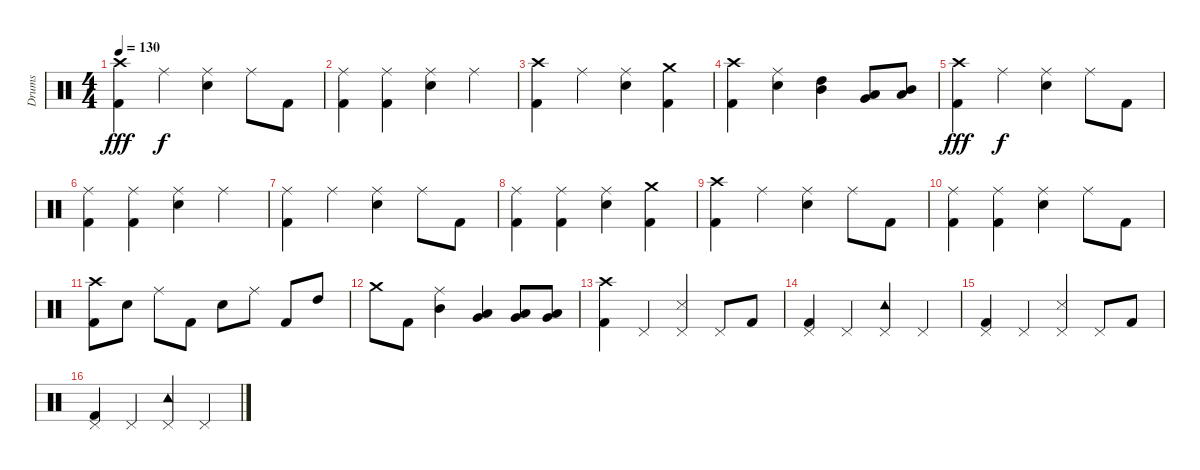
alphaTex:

\track ("Drums" "Drums") {instrument percussion}
\staff {score}
\articulation defaults
\ts (4 4)
\tempo 130
\clef neutral
\ks c
("Crash high (hit)" "Kick (hit) 2").4{dy fff} "Ride (middle)".4{dy f} ("Ride (middle)" "Electric Snare (hit)").4 "Ride (middle)".8 "Kick (hit) 2".8 |
("Ride (middle)" "Kick (hit) 2").4 ("Ride (middle)" "Kick (hit) 2").4 ("Ride (middle)" "Electric Snare (hit)").4 "Ride (middle)".4 |
("Crash high (hit)" "Kick (hit) 2").4 "Ride (middle)".4 ("Ride (middle)" "Electric Snare (hit)").4 ("Crash medium (hit)" "Kick (hit) 2").4 |
("Crash high (hit)" "Kick (hit) 2").4 ("Ride (middle)" "Electric Snare (hit)").4 ("High Tom (hit)" "Mid Tom (hit)").4 ("Low Tom (hit)" "Very Low Tom (hit)").8 ("Mid Tom (hit)" "Low Tom (hit)").8 |
("Crash high (hit)" "Kick (hit) 2").4{dy fff} "Ride (middle)".4{dy f} ("Ride (middle)" "Electric Snare (hit)").4 "Ride (middle)".8 "Kick (hit) 2".8 |
("Ride (middle)" "Kick (hit) 2").4 ("Ride (middle)" "Kick (hit) 2").4 ("Ride (middle)" "Electric Snare (hit)").4 "Ride (middle)".4 |
("Ride (middle)" "Kick (hit) 2").4 "Ride (middle)".4 ("Ride (middle)" "Electric Snare (hit)").4 "Ride (middle)".8 "Kick (hit) 2".8 |
("Ride (middle)" "Kick (hit) 2").4 ("Ride (middle)" "Kick (hit) 2").4 ("Ride (middle)" "Electric Snare (hit)").4 ("Crash medium (hit)" "Kick (hit) 2").4 |
("Crash high (hit)" "Kick (hit) 2").4 "Ride (middle)".4 ("Ride (middle)" "Electric Snare (hit)").4 "Ride (middle)".8 "Kick (hit) 2".8 |
("Ride (middle)" "Kick (hit) 2").4 ("Ride (middle)" "Kick (hit) 2").4 ("Ride (middle)" "Electric Snare (hit)").4 "Ride (middle)".8 "Kick (hit) 2".8 |
("Crash high (hit)" "Kick (hit) 2").8 "Electric Snare (hit)".8 "Ride (middle)".8 "Kick (hit) 2".8 "Electric Snare (hit)".8 "Ride (middle)".8 "Kick (hit) 2".8 "High Tom (hit)".8 |
"Crash medium (hit)".8 "Kick (hit) 2".8 ("Ride (middle)" "Mid Tom (hit)").4 ("Low Tom (hit)" "Very Low Tom (hit)").4 ("Very Low Tom (hit)" "Low Floor Tom (hit)").8 ("Very Low Tom (hit)" "Low Floor Tom (hit)").8 |
("Crash high (hit)" "Kick (hit) 2").4 "Pedal Hi-Hat (hit)".4 ("Pedal Hi-Hat (hit)" "Snare (side stick) 3").4 "Pedal Hi-Hat (hit)".8 "Kick (hit) 2".8 |
("Pedal Hi-Hat (hit)" "Kick (hit) 2").4 "Pedal Hi-Hat (hit)".4 ("Tambourine (hit)" "Pedal Hi-Hat (hit)").4 "Pedal Hi-Hat (hit)".4 |
("Pedal Hi-Hat (hit)" "Kick (hit) 2").4 "Pedal Hi-Hat (hit)".4 ("Pedal Hi-Hat (hit)" "Snare (side stick) 3").4 "Pedal Hi-Hat (hit)".8 "Kick (hit) 2".8 |
("Pedal Hi-Hat (hit)" "Kick (hit) 2").4 "Pedal Hi-Hat (hit)".4 ("Tambourine (hit)" "Pedal Hi-Hat (hit)").4 "Pedal Hi-Hat (hit)".4
